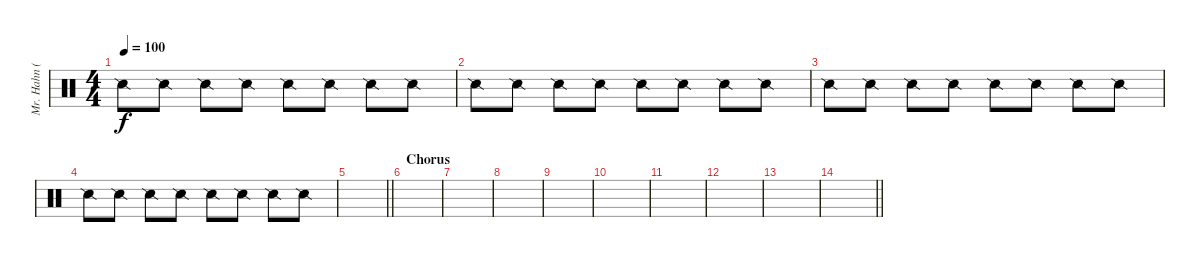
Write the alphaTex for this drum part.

\track ("Mr. Hahn (Sampler)" "Mr. Hahn (") {instrument percussion}
\staff {score}
\articulation defaults
\ts (4 4)
\tempo 100
\clef neutral
\ks c "Snare (side stick) 2".8{dy f} "Snare (side stick) 2".8 "Snare (side stick) 2".8 "Snare (side stick) 2".8 "Snare (side stick) 2".8 "Snare (side stick) 2".8 "Snare (side stick) 2".8 "Snare (side stick) 2".8
|
"Snare (side stick) 2".8 "Snare (side stick) 2".8 "Snare (side stick) 2".8 "Snare (side stick) 2".8 "Snare (side stick) 2".8 "Snare (side stick) 2".8 "Snare (side stick) 2".8 "Snare (side stick) 2".8 |
"Snare (side stick) 2".8 "Snare (side stick) 2".8 "Snare (side stick) 2".8 "Snare (side stick) 2".8 "Snare (side stick) 2".8 "Snare (side stick) 2".8 "Snare (side stick) 2".8 "Snare (side stick) 2".8 |
"Snare (side stick) 2".8 "Snare (side stick) 2".8 "Snare (side stick) 2".8 "Snare (side stick) 2".8 "Snare (side stick) 2".8 "Snare (side stick) 2".8 "Snare (side stick) 2".8 "Snare (side stick) 2".8 |
\barLineRight lightlight
|
\section ("" "Chorus")
|
|
|
|
|
|
|
|
\barLineRight lightlight
